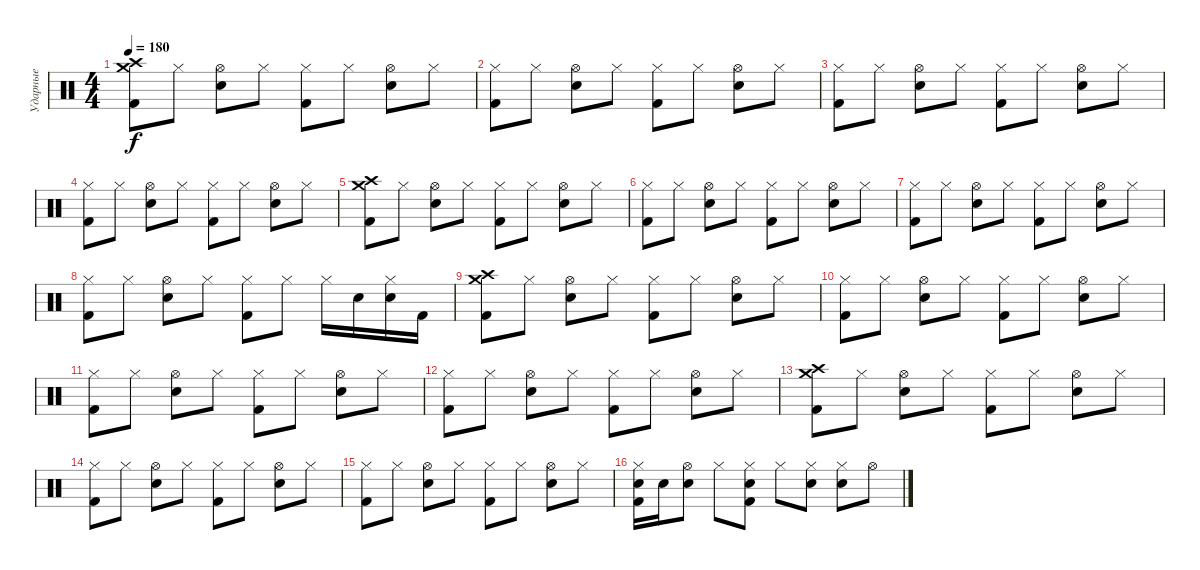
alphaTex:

\track ("Ударные" "Ударные") {instrument percussion}
\staff {score}
\articulation defaults
\ts (4 4)
\tempo 180
\clef neutral
\ks c
("Crash high (hit)" "Crash medium (hit)" "Kick (hit) 2").8{dy f} "Hi-Hat (closed)".8 ("Hi-Hat (open)" "Snare (hit) 2").8 "Hi-Hat (closed)".8 ("Hi-Hat (closed)" "Kick (hit) 2").8 "Hi-Hat (closed)".8 ("Hi-Hat (open)" "Snare (hit) 2").8 "Hi-Hat (closed)".8 |
("Hi-Hat (closed)" "Kick (hit) 2").8 "Hi-Hat (closed)".8 ("Hi-Hat (open)" "Snare (hit) 2").8 "Hi-Hat (closed)".8 ("Hi-Hat (closed)" "Kick (hit) 2").8 "Hi-Hat (closed)".8 ("Hi-Hat (open)" "Snare (hit) 2").8 "Hi-Hat (closed)".8 |
("Hi-Hat (closed)" "Kick (hit) 2").8 "Hi-Hat (closed)".8 ("Hi-Hat (open)" "Snare (hit) 2").8 "Hi-Hat (closed)".8 ("Hi-Hat (closed)" "Kick (hit) 2").8 "Hi-Hat (closed)".8 ("Hi-Hat (open)" "Snare (hit) 2").8 "Hi-Hat (closed)".8 |
("Hi-Hat (closed)" "Kick (hit) 2").8 "Hi-Hat (closed)".8 ("Hi-Hat (open)" "Snare (hit) 2").8 "Hi-Hat (closed)".8 ("Hi-Hat (closed)" "Kick (hit) 2").8 "Hi-Hat (closed)".8 ("Hi-Hat (open)" "Snare (hit) 2").8 "Hi-Hat (closed)".8 |
("Crash high (hit)" "Crash medium (hit)" "Kick (hit) 2").8 "Hi-Hat (closed)".8 ("Hi-Hat (open)" "Snare (hit) 2").8 "Hi-Hat (closed)".8 ("Hi-Hat (closed)" "Kick (hit) 2").8 "Hi-Hat (closed)".8 ("Hi-Hat (open)" "Snare (hit) 2").8 "Hi-Hat (closed)".8 |
("Hi-Hat (closed)" "Kick (hit) 2").8 "Hi-Hat (closed)".8 ("Hi-Hat (open)" "Snare (hit) 2").8 "Hi-Hat (closed)".8 ("Hi-Hat (closed)" "Kick (hit) 2").8 "Hi-Hat (closed)".8 ("Hi-Hat (open)" "Snare (hit) 2").8 "Hi-Hat (closed)".8 |
("Hi-Hat (closed)" "Kick (hit) 2").8 "Hi-Hat (closed)".8 ("Hi-Hat (open)" "Snare (hit) 2").8 "Hi-Hat (closed)".8 ("Hi-Hat (closed)" "Kick (hit) 2").8 "Hi-Hat (closed)".8 ("Hi-Hat (open)" "Snare (hit) 2").8 "Hi-Hat (closed)".8 |
("Hi-Hat (closed)" "Kick (hit) 2").8 "Hi-Hat (closed)".8 ("Hi-Hat (open)" "Snare (hit) 2").8 "Hi-Hat (closed)".8 ("Hi-Hat (closed)" "Kick (hit) 2").8 "Hi-Hat (closed)".8 "Hi-Hat (closed)".16 "Snare (hit) 2".16 ("Hi-Hat (closed)" "Snare (hit) 2").16 "Kick (hit) 2".16 |
("Crash high (hit)" "Crash medium (hit)" "Kick (hit) 2").8 "Hi-Hat (closed)".8 ("Hi-Hat (open)" "Snare (hit) 2").8 "Hi-Hat (closed)".8 ("Hi-Hat (closed)" "Kick (hit) 2").8 "Hi-Hat (closed)".8 ("Hi-Hat (open)" "Snare (hit) 2").8 "Hi-Hat (closed)".8 |
("Hi-Hat (closed)" "Kick (hit) 2").8 "Hi-Hat (closed)".8 ("Hi-Hat (open)" "Snare (hit) 2").8 "Hi-Hat (closed)".8 ("Hi-Hat (closed)" "Kick (hit) 2").8 "Hi-Hat (closed)".8 ("Hi-Hat (open)" "Snare (hit) 2").8 "Hi-Hat (closed)".8 |
("Hi-Hat (closed)" "Kick (hit) 2").8 "Hi-Hat (closed)".8 ("Hi-Hat (open)" "Snare (hit) 2").8 "Hi-Hat (closed)".8 ("Hi-Hat (closed)" "Kick (hit) 2").8 "Hi-Hat (closed)".8 ("Hi-Hat (open)" "Snare (hit) 2").8 "Hi-Hat (closed)".8 |
("Hi-Hat (closed)" "Kick (hit) 2").8 "Hi-Hat (closed)".8 ("Hi-Hat (open)" "Snare (hit) 2").8 "Hi-Hat (closed)".8 ("Hi-Hat (closed)" "Kick (hit) 2").8 "Hi-Hat (closed)".8 ("Hi-Hat (open)" "Snare (hit) 2").8 "Hi-Hat (closed)".8 |
("Crash high (hit)" "Crash medium (hit)" "Kick (hit) 2").8 "Hi-Hat (closed)".8 ("Hi-Hat (open)" "Snare (hit) 2").8 "Hi-Hat (closed)".8 ("Hi-Hat (closed)" "Kick (hit) 2").8 "Hi-Hat (closed)".8 ("Hi-Hat (open)" "Snare (hit) 2").8 "Hi-Hat (closed)".8 |
("Hi-Hat (closed)" "Kick (hit) 2").8 "Hi-Hat (closed)".8 ("Hi-Hat (open)" "Snare (hit) 2").8 "Hi-Hat (closed)".8 ("Hi-Hat (closed)" "Kick (hit) 2").8 "Hi-Hat (closed)".8 ("Hi-Hat (open)" "Snare (hit) 2").8 "Hi-Hat (closed)".8 |
("Hi-Hat (closed)" "Kick (hit) 2").8 "Hi-Hat (closed)".8 ("Hi-Hat (open)" "Snare (hit) 2").8 "Hi-Hat (closed)".8 ("Hi-Hat (closed)" "Kick (hit) 2").8 "Hi-Hat (closed)".8 ("Hi-Hat (open)" "Snare (hit) 2").8 "Hi-Hat (closed)".8 |
("Hi-Hat (closed)" "Snare (hit) 2" "Kick (hit) 2").16 "Snare (hit) 2".16 ("Hi-Hat (open)" "Snare (hit) 2").8 "Hi-Hat (closed)".8 ("Hi-Hat (closed)" "Snare (hit) 2" "Kick (hit) 2").8 "Hi-Hat (closed)".8 ("Hi-Hat (closed)" "Snare (hit) 2").8 ("Hi-Hat (closed)" "Snare (hit) 2").8 "Hi-Hat (open)".8
